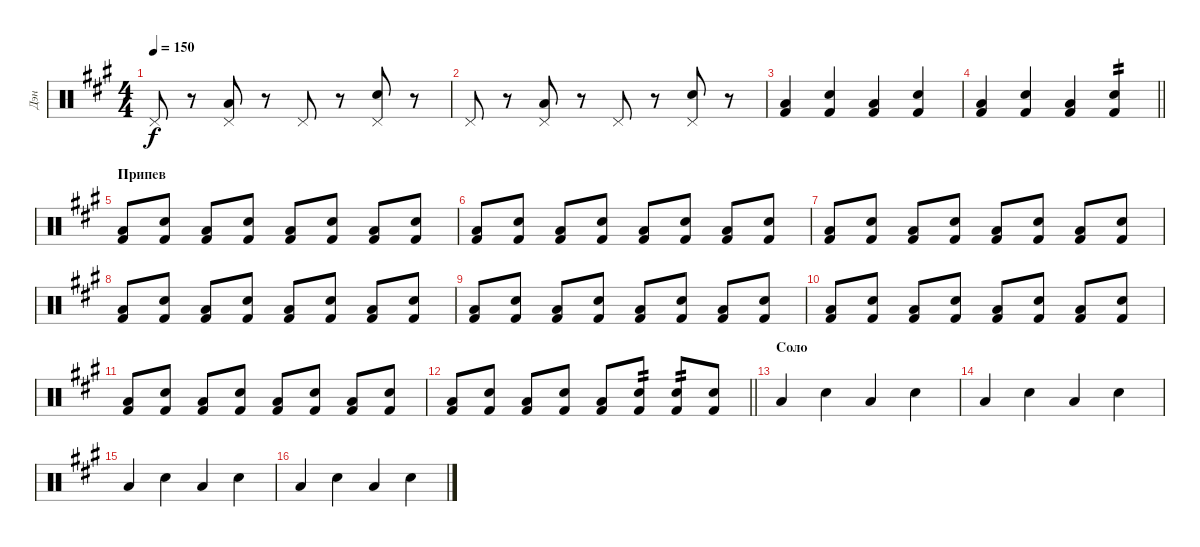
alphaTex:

\track ("Дэн" "Дэн") {instrument percussion}
\staff {score}
\articulation defaults
\ts (4 4)
\tempo 150
\clef neutral
\ks f#minor "Pedal Hi-Hat (hit)".8{dy f}
r.8 ("Low Tom (hit)" "Pedal Hi-Hat (hit)").8 r.8 "Pedal Hi-Hat (hit)".8 r.8 ("Snare (hit) 2" "Pedal Hi-Hat (hit)").8 r.8 |
"Pedal Hi-Hat (hit)".8 r.8 ("Low Tom (hit)" "Pedal Hi-Hat (hit)").8 r.8 "Pedal Hi-Hat (hit)".8 r.8 ("Snare (hit) 2" "Pedal Hi-Hat (hit)").8 r.8 |
("Low Tom (hit)" "Kick (hit) 2").4 ("Snare (hit) 2" "Kick (hit) 2").4 ("Low Tom (hit)" "Kick (hit) 2").4 ("Snare (hit) 2" "Kick (hit) 2").4 |
\barLineRight lightlight
("Low Tom (hit)" "Kick (hit) 2").4 ("Snare (hit) 2" "Kick (hit) 2").4 ("Low Tom (hit)" "Kick (hit) 2").4 ("Snare (hit) 2" "Kick (hit) 2").4{tp 2} |
\section ("" "Припев")
("Low Tom (hit)" "Kick (hit) 2").8 ("Snare (hit) 2" "Kick (hit) 2").8 ("Low Tom (hit)" "Kick (hit) 2").8 ("Snare (hit) 2" "Kick (hit) 2").8 ("Low Tom (hit)" "Kick (hit) 2").8 ("Snare (hit) 2" "Kick (hit) 2").8 ("Low Tom (hit)" "Kick (hit) 2").8 ("Snare (hit) 2" "Kick (hit) 2").8 |
("Low Tom (hit)" "Kick (hit) 2").8 ("Snare (hit) 2" "Kick (hit) 2").8 ("Low Tom (hit)" "Kick (hit) 2").8 ("Snare (hit) 2" "Kick (hit) 2").8 ("Low Tom (hit)" "Kick (hit) 2").8 ("Snare (hit) 2" "Kick (hit) 2").8 ("Low Tom (hit)" "Kick (hit) 2").8 ("Snare (hit) 2" "Kick (hit) 2").8 |
("Low Tom (hit)" "Kick (hit) 2").8 ("Snare (hit) 2" "Kick (hit) 2").8 ("Low Tom (hit)" "Kick (hit) 2").8 ("Snare (hit) 2" "Kick (hit) 2").8 ("Low Tom (hit)" "Kick (hit) 2").8 ("Snare (hit) 2" "Kick (hit) 2").8 ("Low Tom (hit)" "Kick (hit) 2").8 ("Snare (hit) 2" "Kick (hit) 2").8 |
("Low Tom (hit)" "Kick (hit) 2").8 ("Snare (hit) 2" "Kick (hit) 2").8 ("Low Tom (hit)" "Kick (hit) 2").8 ("Snare (hit) 2" "Kick (hit) 2").8 ("Low Tom (hit)" "Kick (hit) 2").8 ("Snare (hit) 2" "Kick (hit) 2").8 ("Low Tom (hit)" "Kick (hit) 2").8 ("Snare (hit) 2" "Kick (hit) 2").8 |
("Low Tom (hit)" "Kick (hit) 2").8 ("Snare (hit) 2" "Kick (hit) 2").8 ("Low Tom (hit)" "Kick (hit) 2").8 ("Snare (hit) 2" "Kick (hit) 2").8 ("Low Tom (hit)" "Kick (hit) 2").8 ("Snare (hit) 2" "Kick (hit) 2").8 ("Low Tom (hit)" "Kick (hit) 2").8 ("Snare (hit) 2" "Kick (hit) 2").8 |
("Low Tom (hit)" "Kick (hit) 2").8 ("Snare (hit) 2" "Kick (hit) 2").8 ("Low Tom (hit)" "Kick (hit) 2").8 ("Snare (hit) 2" "Kick (hit) 2").8 ("Low Tom (hit)" "Kick (hit) 2").8 ("Snare (hit) 2" "Kick (hit) 2").8 ("Low Tom (hit)" "Kick (hit) 2").8 ("Snare (hit) 2" "Kick (hit) 2").8 |
("Low Tom (hit)" "Kick (hit) 2").8 ("Snare (hit) 2" "Kick (hit) 2").8 ("Low Tom (hit)" "Kick (hit) 2").8 ("Snare (hit) 2" "Kick (hit) 2").8 ("Low Tom (hit)" "Kick (hit) 2").8 ("Snare (hit) 2" "Kick (hit) 2").8 ("Low Tom (hit)" "Kick (hit) 2").8 ("Snare (hit) 2" "Kick (hit) 2").8 |
\barLineRight lightlight
("Low Tom (hit)" "Kick (hit) 2").8 ("Snare (hit) 2" "Kick (hit) 2").8 ("Low Tom (hit)" "Kick (hit) 2").8 ("Snare (hit) 2" "Kick (hit) 2").8 ("Low Tom (hit)" "Kick (hit) 2").8 ("Snare (hit) 2" "Kick (hit) 2").8{tp 2} ("Snare (hit) 2" "Kick (hit) 2").8{tp 2} ("Snare (hit) 2" "Kick (hit) 2").8 |
\section ("" "Соло")
"Low Tom (hit)".4 "Snare (hit) 2".4 "Low Tom (hit)".4 "Snare (hit) 2".4 |
"Low Tom (hit)".4 "Snare (hit) 2".4 "Low Tom (hit)".4 "Snare (hit) 2".4 |
"Low Tom (hit)".4 "Snare (hit) 2".4 "Low Tom (hit)".4 "Snare (hit) 2".4 |
"Low Tom (hit)".4 "Snare (hit) 2".4 "Low Tom (hit)".4 "Snare (hit) 2".4
